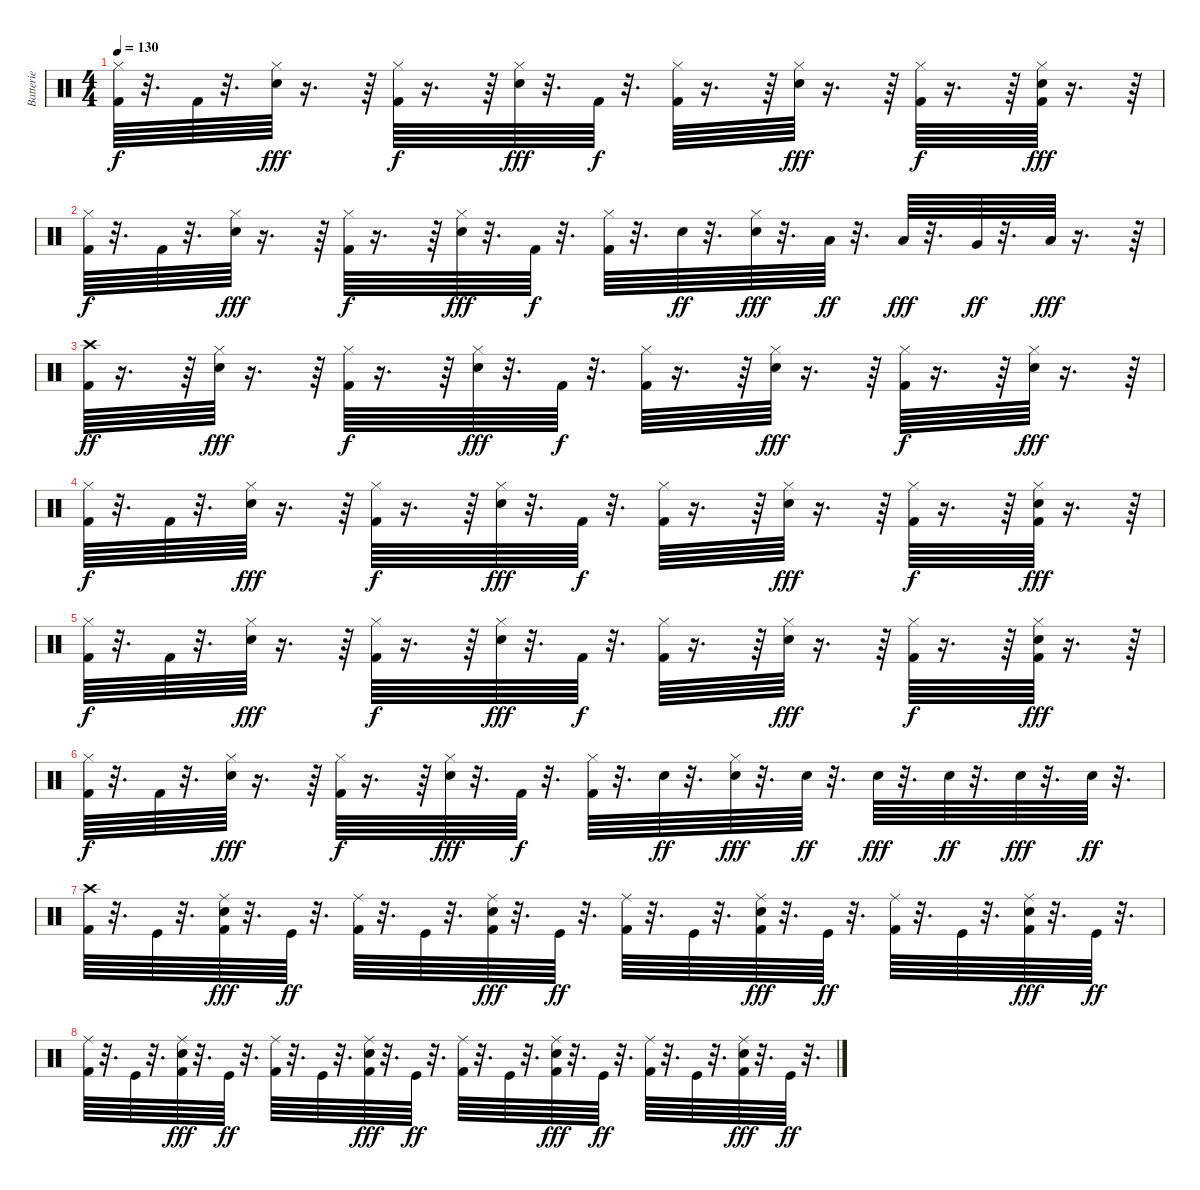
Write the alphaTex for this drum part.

\track ("Batterie" "Batterie") {instrument percussion}
\staff {score}
\articulation defaults
\ts (4 4)
\tempo 130
\clef neutral
\ks c
("Kick (hit) 2" "Hi-Hat (closed)").64{dy f} r.32{d} "Kick (hit) 2".64 r.32{d} ("Snare (hit) 2" "Hi-Hat (closed)").64{dy fff} r.16{d} r.64 ("Kick (hit) 2" "Hi-Hat (closed)").64{dy f} r.16{d} r.64 ("Snare (hit) 2" "Hi-Hat (closed)").64{dy fff} r.32{d} "Kick (hit) 2".64{dy f} r.32{d} ("Kick (hit) 2" "Hi-Hat (closed)").64 r.16{d} r.64 ("Snare (hit) 2" "Hi-Hat (closed)").64{dy fff} r.16{d} r.64 ("Kick (hit) 2" "Hi-Hat (closed)").64{dy f} r.16{d} r.64 ("Kick (hit) 2" "Snare (hit) 2" "Hi-Hat (closed)").64{dy fff} r.16{d} r.64 |
("Kick (hit) 2" "Hi-Hat (closed)").64{dy f} r.32{d} "Kick (hit) 2".64 r.32{d} ("Snare (hit) 2" "Hi-Hat (closed)").64{dy fff} r.16{d} r.64 ("Kick (hit) 2" "Hi-Hat (closed)").64{dy f} r.16{d} r.64 ("Snare (hit) 2" "Hi-Hat (closed)").64{dy fff} r.32{d} "Kick (hit) 2".64{dy f} r.32{d} ("Kick (hit) 2" "Hi-Hat (closed)").64 r.32{d} "Snare (hit) 2".64{dy ff} r.32{d} ("Snare (hit) 2" "Hi-Hat (closed)").64{dy fff} r.32{d} "Low Tom (hit)".64{dy ff} r.32{d} "Low Tom (hit)".64{dy fff} r.32{d} "Very Low Tom (hit)".64{dy ff} r.32{d} "Low Floor Tom (hit)".64{dy fff} r.16{d} r.64 |
("Kick (hit) 2" "Crash high (hit)").64{dy ff} r.16{d} r.64 ("Hi-Hat (closed)" "Snare (hit) 2").64{dy fff} r.16{d} r.64 ("Kick (hit) 2" "Hi-Hat (closed)").64{dy f} r.16{d} r.64 ("Hi-Hat (closed)" "Snare (hit) 2").64{dy fff} r.32{d} "Kick (hit) 2".64{dy f} r.32{d} ("Kick (hit) 2" "Hi-Hat (closed)").64 r.16{d} r.64 ("Hi-Hat (closed)" "Snare (hit) 2").64{dy fff} r.16{d} r.64 ("Kick (hit) 2" "Hi-Hat (closed)").64{dy f} r.16{d} r.64 ("Hi-Hat (closed)" "Snare (hit) 2").64{dy fff} r.16{d} r.64 |
("Kick (hit) 2" "Hi-Hat (closed)").64{dy f} r.32{d} "Kick (hit) 2".64 r.32{d} ("Snare (hit) 2" "Hi-Hat (closed)").64{dy fff} r.16{d} r.64 ("Kick (hit) 2" "Hi-Hat (closed)").64{dy f} r.16{d} r.64 ("Snare (hit) 2" "Hi-Hat (closed)").64{dy fff} r.32{d} "Kick (hit) 2".64{dy f} r.32{d} ("Kick (hit) 2" "Hi-Hat (closed)").64 r.16{d} r.64 ("Snare (hit) 2" "Hi-Hat (closed)").64{dy fff} r.16{d} r.64 ("Kick (hit) 2" "Hi-Hat (closed)").64{dy f} r.16{d} r.64 ("Kick (hit) 2" "Snare (hit) 2" "Hi-Hat (closed)").64{dy fff} r.16{d} r.64 |
("Kick (hit) 2" "Hi-Hat (closed)").64{dy f} r.32{d} "Kick (hit) 2".64 r.32{d} ("Snare (hit) 2" "Hi-Hat (closed)").64{dy fff} r.16{d} r.64 ("Kick (hit) 2" "Hi-Hat (closed)").64{dy f} r.16{d} r.64 ("Snare (hit) 2" "Hi-Hat (closed)").64{dy fff} r.32{d} "Kick (hit) 2".64{dy f} r.32{d} ("Kick (hit) 2" "Hi-Hat (closed)").64 r.16{d} r.64 ("Snare (hit) 2" "Hi-Hat (closed)").64{dy fff} r.16{d} r.64 ("Kick (hit) 2" "Hi-Hat (closed)").64{dy f} r.16{d} r.64 ("Kick (hit) 2" "Snare (hit) 2" "Hi-Hat (closed)").64{dy fff} r.16{d} r.64 |
("Kick (hit) 2" "Hi-Hat (closed)").64{dy f} r.32{d} "Kick (hit) 2".64 r.32{d} ("Snare (hit) 2" "Hi-Hat (closed)").64{dy fff} r.16{d} r.64 ("Kick (hit) 2" "Hi-Hat (closed)").64{dy f} r.16{d} r.64 ("Snare (hit) 2" "Hi-Hat (closed)").64{dy fff} r.32{d} "Kick (hit) 2".64{dy f} r.32{d} ("Kick (hit) 2" "Hi-Hat (closed)").64 r.32{d} "Snare (hit) 2".64{dy ff} r.32{d} ("Snare (hit) 2" "Hi-Hat (closed)").64{dy fff} r.32{d} "Snare (hit) 2".64{dy ff} r.32{d} "Snare (hit) 2".64{dy fff} r.32{d} "Snare (hit) 2".64{dy ff} r.32{d} "Snare (hit) 2".64{dy fff} r.32{d} "Snare (hit) 2".64{dy ff} r.32{d} |
("Crash high (hit)" "Kick (hit) 2").64 r.32{d} "Kick (hit)".64 r.32{d} ("Kick (hit) 2" "Snare (hit) 2" "Ride (middle)").64{dy fff} r.32{d} "Kick (hit)".64{dy ff} r.32{d} ("Kick (hit) 2" "Ride (middle)").64 r.32{d} "Kick (hit)".64 r.32{d} ("Kick (hit) 2" "Snare (hit) 2" "Ride (middle)").64{dy fff} r.32{d} "Kick (hit)".64{dy ff} r.32{d} ("Kick (hit) 2" "Ride (middle)").64 r.32{d} "Kick (hit)".64 r.32{d} ("Kick (hit) 2" "Snare (hit) 2" "Ride (middle)").64{dy fff} r.32{d} "Kick (hit)".64{dy ff} r.32{d} ("Kick (hit) 2" "Ride (middle)").64 r.32{d} "Kick (hit)".64 r.32{d} ("Kick (hit) 2" "Snare (hit) 2" "Ride (middle)").64{dy fff} r.32{d} "Kick (hit)".64{dy ff} r.32{d} |
("Kick (hit) 2" "Ride (middle)").64 r.32{d} "Kick (hit)".64 r.32{d} ("Kick (hit) 2" "Snare (hit) 2" "Ride (middle)").64{dy fff} r.32{d} "Kick (hit)".64{dy ff} r.32{d} ("Kick (hit) 2" "Ride (middle)").64 r.32{d} "Kick (hit)".64 r.32{d} ("Kick (hit) 2" "Snare (hit) 2" "Ride (middle)").64{dy fff} r.32{d} "Kick (hit)".64{dy ff} r.32{d} ("Kick (hit) 2" "Ride (middle)").64 r.32{d} "Kick (hit)".64 r.32{d} ("Kick (hit) 2" "Snare (hit) 2" "Ride (middle)").64{dy fff} r.32{d} "Kick (hit)".64{dy ff} r.32{d} ("Kick (hit) 2" "Ride (middle)").64 r.32{d} "Kick (hit)".64 r.32{d} ("Kick (hit) 2" "Snare (hit) 2" "Ride (middle)").64{dy fff} r.32{d} "Kick (hit)".64{dy ff} r.32{d}
